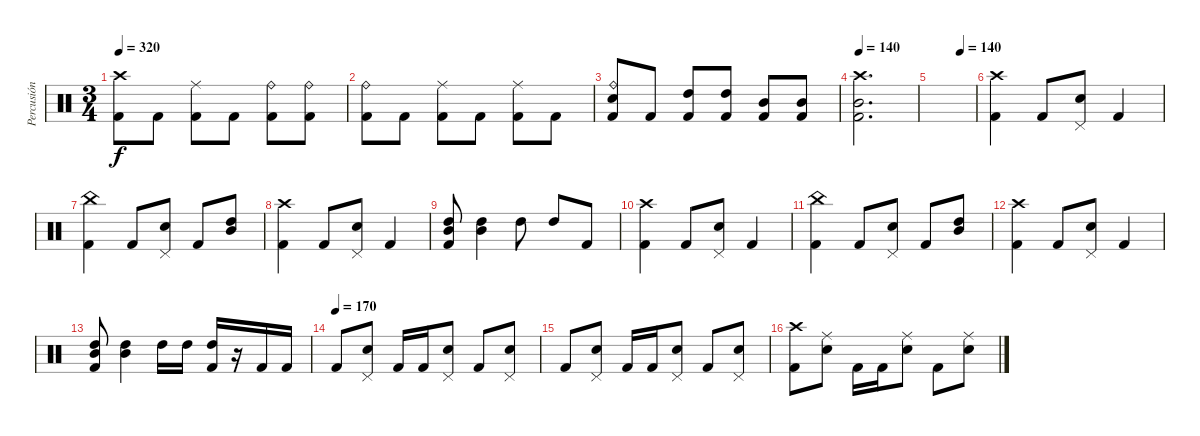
\track ("Percusión" "Percusión") {instrument percussion}
\staff {score}
\articulation defaults
\ts (3 4)
\tempo 320
\clef neutral
\ks c
("Crash high (hit)" "Kick (hit) 2").8{dy f} "Kick (hit) 2".8 ("Ride (middle)" "Kick (hit) 2").8 "Kick (hit) 2".8 ("Ride (bell)" "Kick (hit) 2").8 ("Ride (bell)" "Kick (hit) 2").8 |
("Ride (bell)" "Kick (hit) 2").8 "Kick (hit) 2".8 ("Ride (middle)" "Kick (hit) 2").8 "Kick (hit) 2".8 ("Ride (middle)" "Kick (hit) 2").8 "Kick (hit) 2".8 |
("Ride (bell)" "Snare (hit) 2" "Kick (hit) 2").8 "Kick (hit) 2".8 ("High Tom (hit)" "Kick (hit) 2").8 ("High Tom (hit)" "Kick (hit) 2").8 ("Mid Tom (hit)" "Kick (hit) 2").8 ("Mid Tom (hit)" "Kick (hit) 2").8 |
\tempo 140
("Crash high (hit)" "Mid Tom (hit)" "Kick (hit) 2").2{d} |
\tempo (140 0.6666666666666666)
|
("Crash high (hit)" "Kick (hit) 2").4 "Kick (hit) 2".8 ("Pedal Hi-Hat (hit)" "Snare (hit) 2").8 "Kick (hit) 2".4 |
("China (hit)" "Kick (hit) 2").4 "Kick (hit) 2".8 ("Pedal Hi-Hat (hit)" "Snare (hit) 2").8 "Kick (hit) 2".8 ("High Tom (hit)" "Mid Tom (hit)").8 |
("Crash high (hit)" "Kick (hit) 2").4 "Kick (hit) 2".8 ("Pedal Hi-Hat (hit)" "Snare (hit) 2").8 "Kick (hit) 2".4 |
("High Tom (hit)" "Mid Tom (hit)" "Kick (hit) 2").8 ("High Tom (hit)" "Mid Tom (hit)").4 "High Tom (hit)".8 "High Tom (hit)".8 "Kick (hit) 2".8 |
("Crash high (hit)" "Kick (hit) 2").4 "Kick (hit) 2".8 ("Pedal Hi-Hat (hit)" "Snare (hit) 2").8 "Kick (hit) 2".4 |
("China (hit)" "Kick (hit) 2").4 "Kick (hit) 2".8 ("Pedal Hi-Hat (hit)" "Snare (hit) 2").8 "Kick (hit) 2".8 ("High Tom (hit)" "Mid Tom (hit)").8 |
("Crash high (hit)" "Kick (hit) 2").4 "Kick (hit) 2".8 ("Pedal Hi-Hat (hit)" "Snare (hit) 2").8 "Kick (hit) 2".4 |
("High Tom (hit)" "Mid Tom (hit)" "Kick (hit) 2").8 ("High Tom (hit)" "Mid Tom (hit)").4 "High Tom (hit)".16 "High Tom (hit)".16 ("High Tom (hit)" "Kick (hit) 2").16 r.16 "Kick (hit) 2".16 "Kick (hit) 2".16 |
\tempo (170)
"Kick (hit) 2".8 ("Pedal Hi-Hat (hit)" "Snare (hit) 2").8 "Kick (hit) 2".16 "Kick (hit) 2".16 ("Pedal Hi-Hat (hit)" "Snare (hit) 2").8 "Kick (hit) 2".8 ("Pedal Hi-Hat (hit)" "Snare (hit) 2").8 |
"Kick (hit) 2".8 ("Pedal Hi-Hat (hit)" "Snare (hit) 2").8 "Kick (hit) 2".16 "Kick (hit) 2".16 ("Pedal Hi-Hat (hit)" "Snare (hit) 2").8 "Kick (hit) 2".8 ("Pedal Hi-Hat (hit)" "Snare (hit) 2").8 |
("Crash high (hit)" "Kick (hit) 2").8 ("Ride (middle)" "Snare (hit) 2").8 "Kick (hit) 2".16 "Kick (hit) 2".16 ("Ride (middle)" "Snare (hit) 2").8 "Kick (hit) 2".8 ("Ride (middle)" "Snare (hit) 2").8
